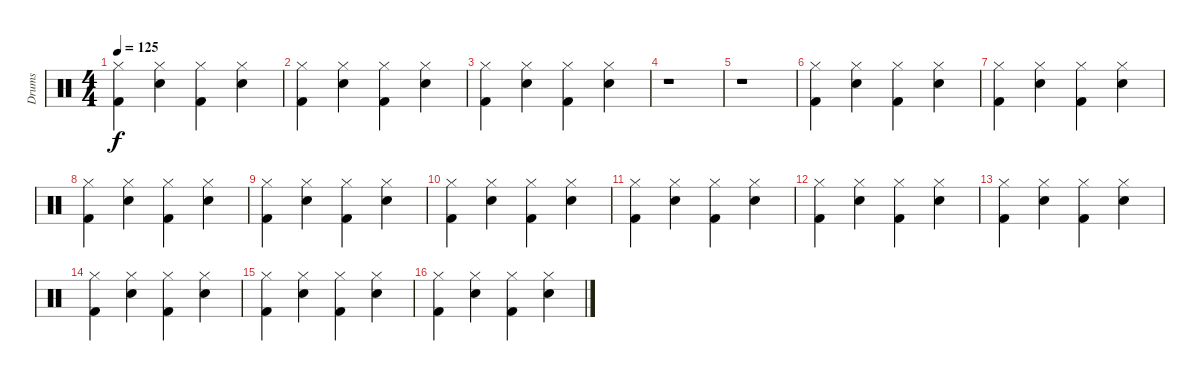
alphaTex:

\track ("Drums" "Drums") {instrument percussion}
\staff {score}
\articulation defaults
\ts (4 4)
\tempo 125
\clef neutral
\ks c
("Hi-Hat (closed)" "Kick (hit) 2").4{dy f} ("Hi-Hat (closed)" "Snare (hit) 2").4 ("Hi-Hat (closed)" "Kick (hit) 2").4 ("Hi-Hat (closed)" "Snare (hit) 2").4 |
("Hi-Hat (closed)" "Kick (hit) 2").4 ("Hi-Hat (closed)" "Snare (hit) 2").4 ("Hi-Hat (closed)" "Kick (hit) 2").4 ("Hi-Hat (closed)" "Snare (hit) 2").4 |
("Hi-Hat (closed)" "Kick (hit) 2").4 ("Hi-Hat (closed)" "Snare (hit) 2").4 ("Hi-Hat (closed)" "Kick (hit) 2").4 ("Hi-Hat (closed)" "Snare (hit) 2").4 |
r.1 |
r.1 |
("Hi-Hat (closed)" "Kick (hit) 2").4 ("Hi-Hat (closed)" "Snare (hit) 2").4 ("Hi-Hat (closed)" "Kick (hit) 2").4 ("Hi-Hat (closed)" "Snare (hit) 2").4 |
("Hi-Hat (closed)" "Kick (hit) 2").4 ("Hi-Hat (closed)" "Snare (hit) 2").4 ("Hi-Hat (closed)" "Kick (hit) 2").4 ("Hi-Hat (closed)" "Snare (hit) 2").4 |
("Hi-Hat (closed)" "Kick (hit) 2").4 ("Hi-Hat (closed)" "Snare (hit) 2").4 ("Hi-Hat (closed)" "Kick (hit) 2").4 ("Hi-Hat (closed)" "Snare (hit) 2").4 |
("Hi-Hat (closed)" "Kick (hit) 2").4 ("Hi-Hat (closed)" "Snare (hit) 2").4 ("Hi-Hat (closed)" "Kick (hit) 2").4 ("Hi-Hat (closed)" "Snare (hit) 2").4 |
("Hi-Hat (closed)" "Kick (hit) 2").4 ("Hi-Hat (closed)" "Snare (hit) 2").4 ("Hi-Hat (closed)" "Kick (hit) 2").4 ("Hi-Hat (closed)" "Snare (hit) 2").4 |
("Hi-Hat (closed)" "Kick (hit) 2").4 ("Hi-Hat (closed)" "Snare (hit) 2").4 ("Hi-Hat (closed)" "Kick (hit) 2").4 ("Hi-Hat (closed)" "Snare (hit) 2").4 |
("Hi-Hat (closed)" "Kick (hit) 2").4 ("Hi-Hat (closed)" "Snare (hit) 2").4 ("Hi-Hat (closed)" "Kick (hit) 2").4 ("Hi-Hat (closed)" "Snare (hit) 2").4 |
("Hi-Hat (closed)" "Kick (hit) 2").4 ("Hi-Hat (closed)" "Snare (hit) 2").4 ("Hi-Hat (closed)" "Kick (hit) 2").4 ("Hi-Hat (closed)" "Snare (hit) 2").4 |
("Hi-Hat (closed)" "Kick (hit) 2").4 ("Hi-Hat (closed)" "Snare (hit) 2").4 ("Hi-Hat (closed)" "Kick (hit) 2").4 ("Hi-Hat (closed)" "Snare (hit) 2").4 |
("Hi-Hat (closed)" "Kick (hit) 2").4 ("Hi-Hat (closed)" "Snare (hit) 2").4 ("Hi-Hat (closed)" "Kick (hit) 2").4 ("Hi-Hat (closed)" "Snare (hit) 2").4 |
("Hi-Hat (closed)" "Kick (hit) 2").4 ("Hi-Hat (closed)" "Snare (hit) 2").4 ("Hi-Hat (closed)" "Kick (hit) 2").4 ("Hi-Hat (closed)" "Snare (hit) 2").4
